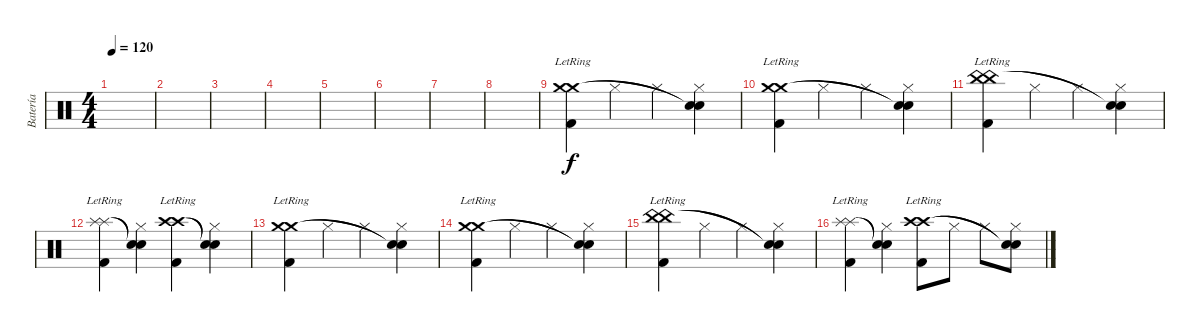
\track ("Batería" "Batería") {instrument percussion}
\staff {score}
\articulation defaults
\ts (4 4)
\tempo 120
\clef neutral
\ks c
|
|
|
|
|
|
|
|
("Kick (hit) 2"{lr} "Crash medium (hit)"{lr} "Crash medium (hit)"{lr}).4 "Hi-Hat (closed)".4 "Hi-Hat (closed)".4 ("Hi-Hat (closed)" "Snare (hit)"{t} "Snare (hit)"{t}).4 |
("Kick (hit) 2"{lr} "Crash medium (hit)"{lr} "Crash medium (hit)"{lr}).4 "Hi-Hat (closed)".4 "Hi-Hat (closed)".4 ("Hi-Hat (closed)" "Snare (hit)"{t} "Snare (hit)"{t}).4 |
("Kick (hit) 2"{lr} "China (hit)"{lr} "China (hit)"{lr}).4 "Hi-Hat (closed)".4 "Hi-Hat (closed)".4 ("Hi-Hat (closed)" "Snare (hit)"{t} "Snare (hit)"{t}).4 |
("Kick (hit) 2" "Splash (hit)"{lr} "Splash (hit)"{lr}).4 ("Hi-Hat (closed)" "Snare (hit)"{t} "Snare (hit)"{t}).4 ("Kick (hit) 2" "Crash high (hit)"{lr} "Crash high (hit)"{lr}).4 ("Hi-Hat (closed)" "Snare (hit)"{t} "Snare (hit)"{t}).4 |
("Kick (hit) 2"{lr} "Crash medium (hit)"{lr} "Crash medium (hit)"{lr}).4 "Hi-Hat (closed)".4 "Hi-Hat (closed)".4 ("Hi-Hat (closed)" "Snare (hit)"{t} "Snare (hit)"{t}).4 |
("Kick (hit) 2"{lr} "Crash medium (hit)"{lr} "Crash medium (hit)"{lr}).4 "Hi-Hat (closed)".4 "Hi-Hat (closed)".4 ("Hi-Hat (closed)" "Snare (hit)"{t} "Snare (hit)"{t}).4 |
("Kick (hit) 2"{lr} "China (hit)"{lr} "China (hit)"{lr}).4 "Hi-Hat (closed)".4 "Hi-Hat (closed)".4 ("Hi-Hat (closed)" "Snare (hit)"{t} "Snare (hit)"{t}).4 |
("Kick (hit) 2" "Splash (hit)"{lr} "Splash (hit)"{lr}).4 ("Hi-Hat (closed)" "Snare (hit)"{t} "Snare (hit)"{t}).4 ("Kick (hit) 2" "Crash high (hit)"{lr} "Crash high (hit)"{lr}).8 "Hi-Hat (closed)".8 "Hi-Hat (closed)".8 ("Hi-Hat (closed)" "Snare (hit)"{t} "Snare (hit)"{t}).8
